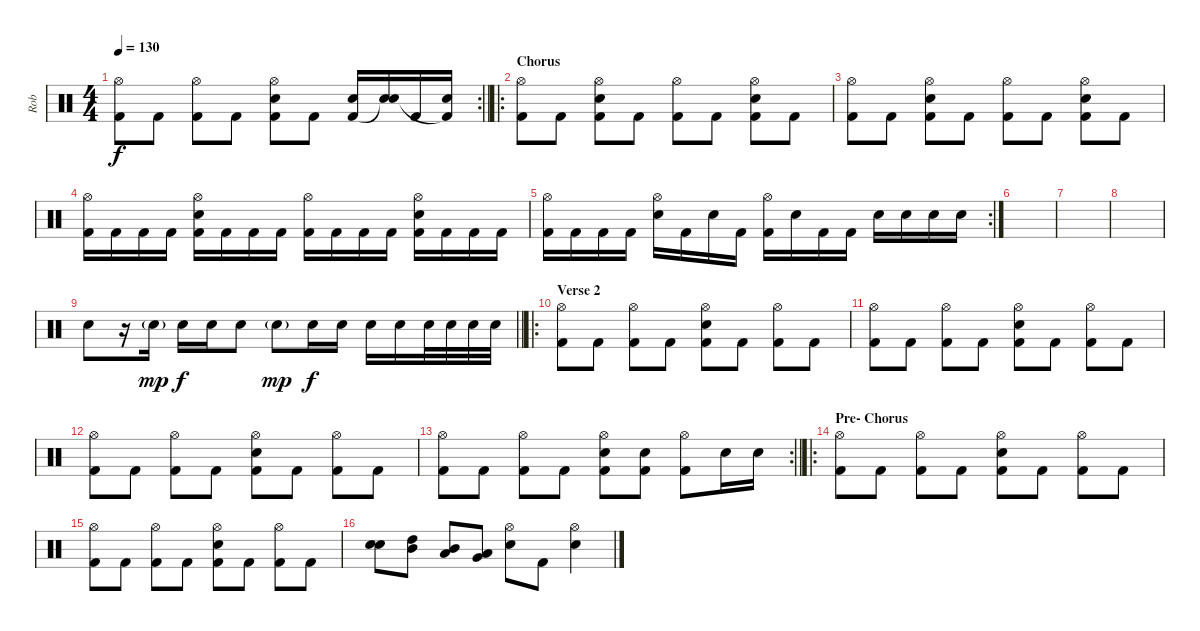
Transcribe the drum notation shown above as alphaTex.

\track ("Rob" "Rob") {instrument percussion}
\staff {score}
\articulation defaults
\rc 2
\ts (4 4)
\tempo 130
\clef neutral
\barLineRight lightlight
\ks c
("Hi-Hat (open)" "Kick (hit) 2").8{dy f} "Kick (hit) 2".8 ("Hi-Hat (open)" "Kick (hit) 2").8 "Kick (hit) 2".8 ("Hi-Hat (open)" "Electric Snare (hit)" "Kick (hit) 2").8 "Kick (hit) 2".8 ("Electric Snare (hit)" "Kick (hit) 2").16 ("Electric Snare (hit)" "Snare (hit)"{t}).16 "Kick (hit) 2".16 ("Electric Snare (hit)" "Kick (hit) 2"{t}).16 |
\ro
\section ("" "Chorus")
("Hi-Hat (open)" "Kick (hit) 2").8 "Kick (hit) 2".8 ("Hi-Hat (open)" "Electric Snare (hit)" "Kick (hit) 2").8 "Kick (hit) 2".8 ("Hi-Hat (open)" "Kick (hit) 2").8 "Kick (hit) 2".8 ("Hi-Hat (open)" "Electric Snare (hit)" "Kick (hit) 2").8 "Kick (hit) 2".8 |
("Hi-Hat (open)" "Kick (hit) 2").8 "Kick (hit) 2".8 ("Hi-Hat (open)" "Electric Snare (hit)" "Kick (hit) 2").8 "Kick (hit) 2".8 ("Hi-Hat (open)" "Kick (hit) 2").8 "Kick (hit) 2".8 ("Hi-Hat (open)" "Electric Snare (hit)" "Kick (hit) 2").8 "Kick (hit) 2".8 |
("Hi-Hat (open)" "Kick (hit) 2").16 "Kick (hit) 2".16 "Kick (hit) 2".16 "Kick (hit) 2".16 ("Hi-Hat (open)" "Electric Snare (hit)" "Kick (hit) 2").16 "Kick (hit) 2".16 "Kick (hit) 2".16 "Kick (hit) 2".16 ("Hi-Hat (open)" "Kick (hit) 2").16 "Kick (hit) 2".16 "Kick (hit) 2".16 "Kick (hit) 2".16 ("Hi-Hat (open)" "Electric Snare (hit)" "Kick (hit) 2").16 "Kick (hit) 2".16 "Kick (hit) 2".16 "Kick (hit) 2".16 |
\rc 2
("Hi-Hat (open)" "Kick (hit) 2").16 "Kick (hit) 2".16 "Kick (hit) 2".16 "Kick (hit) 2".16 ("Hi-Hat (open)" "Electric Snare (hit)").16 "Kick (hit) 2".16 "Electric Snare (hit)".16 "Kick (hit) 2".16 ("Hi-Hat (open)" "Kick (hit) 2").16 "Electric Snare (hit)".16 "Kick (hit) 2".16 "Kick (hit) 2".16 "Electric Snare (hit)".16 "Electric Snare (hit)".16 "Electric Snare (hit)".16 "Electric Snare (hit)".16 |
|
|
|
\barLineRight lightlight "Electric Snare (hit)".8
r.16 "Electric Snare (hit)"{g}.16{dy mp} "Electric Snare (hit)".16{dy f} "Electric Snare (hit)".16 "Electric Snare (hit)".8 "Electric Snare (hit)"{g}.8{dy mp} "Electric Snare (hit)".16{dy f} "Electric Snare (hit)".16 "Electric Snare (hit)".16 "Electric Snare (hit)".16 "Electric Snare (hit)".32 "Electric Snare (hit)".32 "Electric Snare (hit)".32 "Electric Snare (hit)".32 |
\ro
\section ("" "Verse 2")
("Hi-Hat (open)" "Kick (hit) 2").8 "Kick (hit) 2".8 ("Hi-Hat (open)" "Kick (hit) 2").8 "Kick (hit) 2".8 ("Hi-Hat (open)" "Electric Snare (hit)" "Kick (hit) 2").8 "Kick (hit) 2".8 ("Hi-Hat (open)" "Kick (hit) 2").8 "Kick (hit) 2".8 |
("Hi-Hat (open)" "Kick (hit) 2").8 "Kick (hit) 2".8 ("Hi-Hat (open)" "Kick (hit) 2").8 "Kick (hit) 2".8 ("Hi-Hat (open)" "Electric Snare (hit)" "Kick (hit) 2").8 "Kick (hit) 2".8 ("Hi-Hat (open)" "Kick (hit) 2").8 "Kick (hit) 2".8 |
("Hi-Hat (open)" "Kick (hit) 2").8 "Kick (hit) 2".8 ("Hi-Hat (open)" "Kick (hit) 2").8 "Kick (hit) 2".8 ("Hi-Hat (open)" "Electric Snare (hit)" "Kick (hit) 2").8 "Kick (hit) 2".8 ("Hi-Hat (open)" "Kick (hit) 2").8 "Kick (hit) 2".8 |
\rc 2
\barLineRight lightlight
("Hi-Hat (open)" "Kick (hit) 2").8 "Kick (hit) 2".8 ("Hi-Hat (open)" "Kick (hit) 2").8 "Kick (hit) 2".8 ("Hi-Hat (open)" "Electric Snare (hit)" "Kick (hit) 2").8 ("Electric Snare (hit)" "Kick (hit) 2").8 ("Hi-Hat (open)" "Kick (hit) 2").8 "Electric Snare (hit)".16 "Electric Snare (hit)".16 |
\ro
\section ("" "Pre- Chorus")
("Hi-Hat (open)" "Kick (hit) 2").8 "Kick (hit) 2".8 ("Hi-Hat (open)" "Kick (hit) 2").8 "Kick (hit) 2".8 ("Hi-Hat (open)" "Electric Snare (hit)" "Kick (hit) 2").8 "Kick (hit) 2".8 ("Hi-Hat (open)" "Kick (hit) 2").8 "Kick (hit) 2".8 |
("Hi-Hat (open)" "Kick (hit) 2").8 "Kick (hit) 2".8 ("Hi-Hat (open)" "Kick (hit) 2").8 "Kick (hit) 2".8 ("Hi-Hat (open)" "Electric Snare (hit)" "Kick (hit) 2").8 "Kick (hit) 2".8 ("Hi-Hat (open)" "Kick (hit) 2").8 "Kick (hit) 2".8 |
("Snare (hit) 2" "Electric Snare (hit)").8{bu 480} ("High Tom (hit)" "Mid Tom (hit)").8{bu 480} ("Mid Tom (hit)" "Low Tom (hit)").8{bu 480} ("Low Tom (hit)" "Very Low Tom (hit)").8{bu 480} ("Hi-Hat (open)" "Electric Snare (hit)").8 "Kick (hit) 2".8 ("Hi-Hat (open)" "Electric Snare (hit)").4
